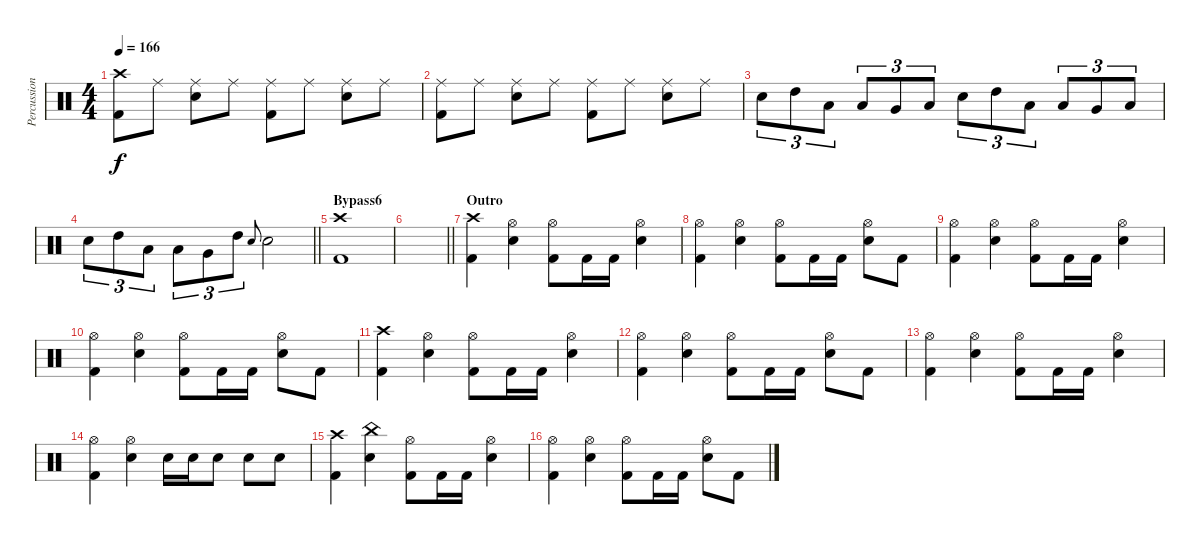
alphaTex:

\track ("Percussion" "Percussion") {solo instrument percussion}
\staff {score}
\articulation defaults
\ts (4 4)
\tempo 166
\clef neutral
\ks c
("Crash high (hit)" "Kick (hit) 2").8{dy f} "Ride (middle)".8 ("Ride (middle)" "Snare (hit) 2").8 "Ride (middle)".8 ("Ride (middle)" "Kick (hit) 2").8 "Ride (middle)".8 ("Ride (middle)" "Snare (hit) 2").8 "Ride (middle)".8 |
("Ride (middle)" "Kick (hit) 2").8 "Ride (middle)".8 ("Ride (middle)" "Snare (hit) 2").8 "Ride (middle)".8 ("Ride (middle)" "Kick (hit) 2").8 "Ride (middle)".8 ("Ride (middle)" "Snare (hit) 2").8 "Ride (middle)".8 |
\ks aminor "Snare (hit) 2".8{tu (3 2)} "High Tom (hit)".8{tu (3 2)} "Low Tom (hit)".8{tu (3 2)} "Low Tom (hit)".8{tu (3 2)} "Very Low Tom (hit)".8{tu (3 2)} "Low Tom (hit)".8{tu (3 2)} "Snare (hit) 2".8{tu (3 2)} "High Tom (hit)".8{tu (3 2)} "Low Tom (hit)".8{tu (3 2)} "Low Tom (hit)".8{tu (3 2)} "Very Low Tom (hit)".8{tu (3 2)} "Low Tom (hit)".8{tu (3 2)}
|
\barLineRight lightlight "Snare (hit) 2".8{tu (3 2)} "High Tom (hit)".8{tu (3 2)} "Low Tom (hit)".8{tu (3 2)} "Low Tom (hit)".8{tu (3 2)} "Very Low Tom (hit)".8{tu (3 2)} "High Tom (hit)".8{tu (3 2)} "Snare (hit) 2".8{gr onbeat} "Snare (hit) 2".2
|
\section ("" "Bypass6")
("Crash high (hit)" "Kick (hit) 2").1 |
\barLineRight lightlight
|
\section ("" "Outro")
\ks c
("Crash high (hit)" "Kick (hit) 2").4 ("Snare (hit) 2" "Hi-Hat (open)").4 ("Hi-Hat (open)" "Kick (hit) 2").8 "Kick (hit) 2".16 "Kick (hit) 2".16 ("Snare (hit) 2" "Hi-Hat (open)").4 |
("Hi-Hat (open)" "Kick (hit) 2").4 ("Snare (hit) 2" "Hi-Hat (open)").4 ("Hi-Hat (open)" "Kick (hit) 2").8 "Kick (hit) 2".16 "Kick (hit) 2".16 ("Hi-Hat (open)" "Snare (hit) 2").8 "Kick (hit) 2".8 |
("Hi-Hat (open)" "Kick (hit) 2").4 ("Snare (hit) 2" "Hi-Hat (open)").4 ("Hi-Hat (open)" "Kick (hit) 2").8 "Kick (hit) 2".16 "Kick (hit) 2".16 ("Hi-Hat (open)" "Snare (hit) 2").4 |
("Hi-Hat (open)" "Kick (hit) 2").4 ("Snare (hit) 2" "Hi-Hat (open)").4 ("Hi-Hat (open)" "Kick (hit) 2").8 "Kick (hit) 2".16 "Kick (hit) 2".16 ("Hi-Hat (open)" "Snare (hit) 2").8 "Kick (hit) 2".8 |
("Crash high (hit)" "Kick (hit) 2").4 ("Snare (hit) 2" "Hi-Hat (open)").4 ("Hi-Hat (open)" "Kick (hit) 2").8 "Kick (hit) 2".16 "Kick (hit) 2".16 ("Snare (hit) 2" "Hi-Hat (open)").4 |
("Hi-Hat (open)" "Kick (hit) 2").4 ("Snare (hit) 2" "Hi-Hat (open)").4 ("Hi-Hat (open)" "Kick (hit) 2").8 "Kick (hit) 2".16 "Kick (hit) 2".16 ("Hi-Hat (open)" "Snare (hit) 2").8 "Kick (hit) 2".8 |
("Hi-Hat (open)" "Kick (hit) 2").4 ("Snare (hit) 2" "Hi-Hat (open)").4 ("Hi-Hat (open)" "Kick (hit) 2").8 "Kick (hit) 2".16 "Kick (hit) 2".16 ("Hi-Hat (open)" "Snare (hit) 2").4 |
("Hi-Hat (open)" "Kick (hit) 2").4 ("Snare (hit) 2" "Hi-Hat (open)").4 "Snare (hit) 2".16 "Snare (hit) 2".16 "Snare (hit) 2".8 "Snare (hit) 2".8 "Snare (hit) 2".8 |
("Crash high (hit)" "Kick (hit) 2").4 ("Snare (hit) 2" "China (hit)").4 ("Hi-Hat (open)" "Kick (hit) 2").8 "Kick (hit) 2".16 "Kick (hit) 2".16 ("Snare (hit) 2" "Hi-Hat (open)").4 |
("Hi-Hat (open)" "Kick (hit) 2").4 ("Snare (hit) 2" "Hi-Hat (open)").4 ("Hi-Hat (open)" "Kick (hit) 2").8 "Kick (hit) 2".16 "Kick (hit) 2".16 ("Hi-Hat (open)" "Snare (hit) 2").8 "Kick (hit) 2".8
